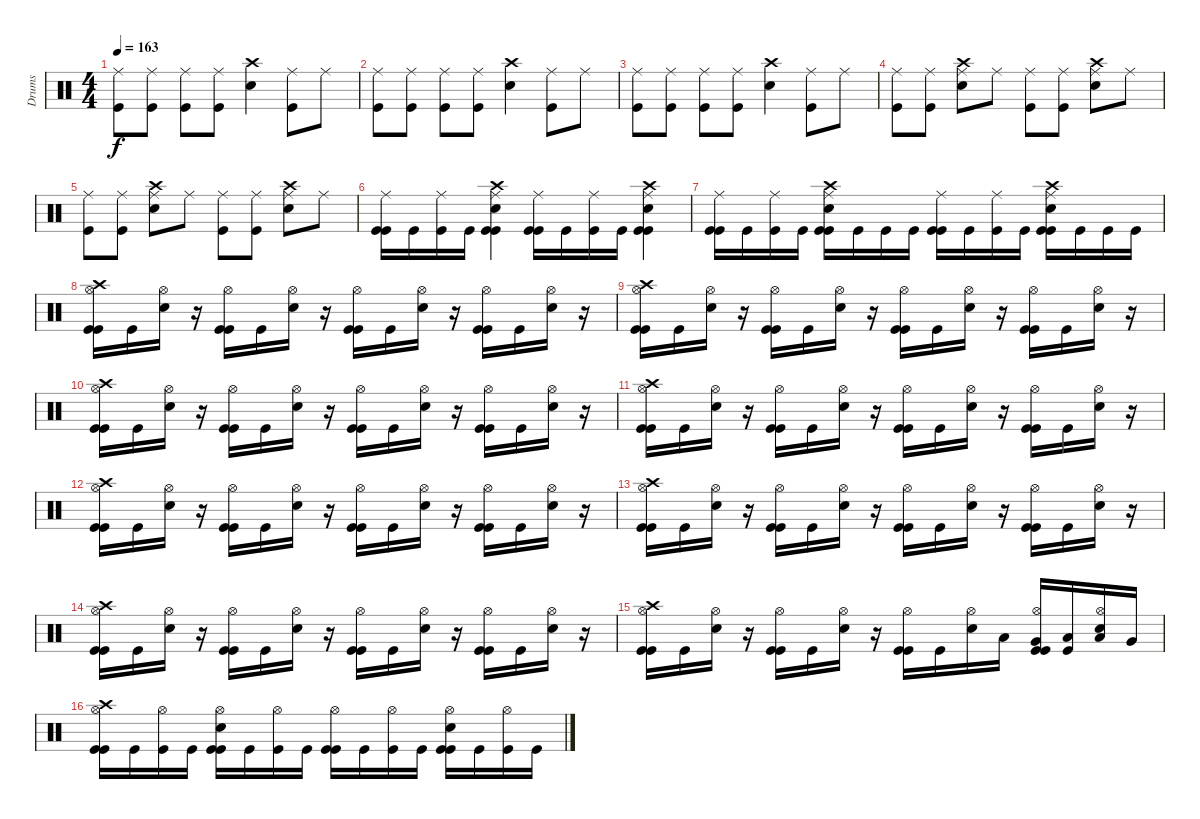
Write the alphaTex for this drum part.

\track ("Drums" "Drums") {instrument percussion}
\staff {score}
\articulation defaults
\ts (4 4)
\tempo 163
\clef neutral
\ks c
("Ride (middle)" "Kick (hit)").8{dy f} ("Ride (middle)" "Kick (hit)").8 ("Ride (middle)" "Kick (hit)").8 ("Ride (middle)" "Kick (hit)").8 ("Crash high (hit)" "Snare (hit) 2").4 ("Ride (middle)" "Kick (hit)").8 "Ride (middle)".8 |
("Ride (middle)" "Kick (hit)").8 ("Ride (middle)" "Kick (hit)").8 ("Ride (middle)" "Kick (hit)").8 ("Ride (middle)" "Kick (hit)").8 ("Crash high (hit)" "Snare (hit) 2").4 ("Ride (middle)" "Kick (hit)").8 "Ride (middle)".8 |
("Ride (middle)" "Kick (hit)").8 ("Ride (middle)" "Kick (hit)").8 ("Ride (middle)" "Kick (hit)").8 ("Ride (middle)" "Kick (hit)").8 ("Crash high (hit)" "Snare (hit) 2").4 ("Ride (middle)" "Kick (hit)").8 "Ride (middle)".8 |
("Ride (middle)" "Kick (hit)").8 ("Ride (middle)" "Kick (hit)").8 ("Crash high (hit)" "Ride (middle)" "Snare (hit) 2").8 "Ride (middle)".8 ("Ride (middle)" "Kick (hit)").8 ("Ride (middle)" "Kick (hit)").8 ("Crash high (hit)" "Ride (middle)" "Snare (hit) 2").8 "Ride (middle)".8 |
("Ride (middle)" "Kick (hit)").8 ("Ride (middle)" "Kick (hit)").8 ("Crash high (hit)" "Ride (middle)" "Snare (hit) 2").8 "Ride (middle)".8 ("Ride (middle)" "Kick (hit)").8 ("Ride (middle)" "Kick (hit)").8 ("Crash high (hit)" "Ride (middle)" "Snare (hit) 2").8 "Ride (middle)".8 |
("Ride (middle)" "Kick (hit)" "Kick (hit)").16 "Kick (hit)".16 ("Ride (middle)" "Kick (hit)").16 "Kick (hit)".16 ("Crash high (hit)" "Electric Snare (hit)" "Ride (middle)" "Kick (hit)" "Kick (hit)").4 ("Ride (middle)" "Kick (hit)" "Kick (hit)").16 "Kick (hit)".16 ("Ride (middle)" "Kick (hit)").16 "Kick (hit)".16 ("Crash high (hit)" "Electric Snare (hit)" "Ride (middle)" "Kick (hit)" "Kick (hit)").4 |
("Ride (middle)" "Kick (hit)" "Kick (hit)").16 "Kick (hit)".16 ("Ride (middle)" "Kick (hit)").16 "Kick (hit)".16 ("Crash high (hit)" "Electric Snare (hit)" "Ride (middle)" "Kick (hit)" "Kick (hit)").16 "Kick (hit)".16 "Kick (hit)".16 "Kick (hit)".16 ("Ride (middle)" "Kick (hit)" "Kick (hit)").16 "Kick (hit)".16 ("Ride (middle)" "Kick (hit)").16 "Kick (hit)".16 ("Crash high (hit)" "Electric Snare (hit)" "Ride (middle)" "Kick (hit)" "Kick (hit)").16 "Kick (hit)".16 "Kick (hit)".16 "Kick (hit)".16 |
("Crash high (hit)" "Hi-Hat (open)" "Kick (hit)" "Kick (hit)").16 "Kick (hit)".16 ("Hi-Hat (open)" "Electric Snare (hit)").16 r.16 ("Hi-Hat (open)" "Kick (hit)" "Kick (hit)").16 "Kick (hit)".16 ("Hi-Hat (open)" "Electric Snare (hit)").16 r.16 ("Hi-Hat (open)" "Kick (hit)" "Kick (hit)").16 "Kick (hit)".16 ("Hi-Hat (open)" "Electric Snare (hit)").16 r.16 ("Hi-Hat (open)" "Kick (hit)" "Kick (hit)").16 "Kick (hit)".16 ("Hi-Hat (open)" "Electric Snare (hit)").16 r.16 |
("Crash high (hit)" "Hi-Hat (open)" "Kick (hit)" "Kick (hit)").16 "Kick (hit)".16 ("Hi-Hat (open)" "Electric Snare (hit)").16 r.16 ("Hi-Hat (open)" "Kick (hit)" "Kick (hit)").16 "Kick (hit)".16 ("Hi-Hat (open)" "Electric Snare (hit)").16 r.16 ("Hi-Hat (open)" "Kick (hit)" "Kick (hit)").16 "Kick (hit)".16 ("Hi-Hat (open)" "Electric Snare (hit)").16 r.16 ("Hi-Hat (open)" "Kick (hit)" "Kick (hit)").16 "Kick (hit)".16 ("Hi-Hat (open)" "Electric Snare (hit)").16 r.16 |
("Crash high (hit)" "Hi-Hat (open)" "Kick (hit)" "Kick (hit)").16 "Kick (hit)".16 ("Hi-Hat (open)" "Electric Snare (hit)").16 r.16 ("Hi-Hat (open)" "Kick (hit)" "Kick (hit)").16 "Kick (hit)".16 ("Hi-Hat (open)" "Electric Snare (hit)").16 r.16 ("Hi-Hat (open)" "Kick (hit)" "Kick (hit)").16 "Kick (hit)".16 ("Hi-Hat (open)" "Electric Snare (hit)").16 r.16 ("Hi-Hat (open)" "Kick (hit)" "Kick (hit)").16 "Kick (hit)".16 ("Hi-Hat (open)" "Electric Snare (hit)").16 r.16 |
("Crash high (hit)" "Hi-Hat (open)" "Kick (hit)" "Kick (hit)").16 "Kick (hit)".16 ("Hi-Hat (open)" "Electric Snare (hit)").16 r.16 ("Hi-Hat (open)" "Kick (hit)" "Kick (hit)").16 "Kick (hit)".16 ("Hi-Hat (open)" "Electric Snare (hit)").16 r.16 ("Hi-Hat (open)" "Kick (hit)" "Kick (hit)").16 "Kick (hit)".16 ("Hi-Hat (open)" "Electric Snare (hit)").16 r.16 ("Hi-Hat (open)" "Kick (hit)" "Kick (hit)").16 "Kick (hit)".16 ("Hi-Hat (open)" "Electric Snare (hit)").16 r.16 |
("Crash high (hit)" "Hi-Hat (open)" "Kick (hit)" "Kick (hit)").16 "Kick (hit)".16 ("Hi-Hat (open)" "Electric Snare (hit)").16 r.16 ("Hi-Hat (open)" "Kick (hit)" "Kick (hit)").16 "Kick (hit)".16 ("Hi-Hat (open)" "Electric Snare (hit)").16 r.16 ("Hi-Hat (open)" "Kick (hit)" "Kick (hit)").16 "Kick (hit)".16 ("Hi-Hat (open)" "Electric Snare (hit)").16 r.16 ("Hi-Hat (open)" "Kick (hit)" "Kick (hit)").16 "Kick (hit)".16 ("Hi-Hat (open)" "Electric Snare (hit)").16 r.16 |
("Crash high (hit)" "Hi-Hat (open)" "Kick (hit)" "Kick (hit)").16 "Kick (hit)".16 ("Hi-Hat (open)" "Electric Snare (hit)").16 r.16 ("Hi-Hat (open)" "Kick (hit)" "Kick (hit)").16 "Kick (hit)".16 ("Hi-Hat (open)" "Electric Snare (hit)").16 r.16 ("Hi-Hat (open)" "Kick (hit)" "Kick (hit)").16 "Kick (hit)".16 ("Hi-Hat (open)" "Electric Snare (hit)").16 r.16 ("Hi-Hat (open)" "Kick (hit)" "Kick (hit)").16 "Kick (hit)".16 ("Hi-Hat (open)" "Electric Snare (hit)").16 r.16 |
("Crash high (hit)" "Hi-Hat (open)" "Kick (hit)" "Kick (hit)").16 "Kick (hit)".16 ("Hi-Hat (open)" "Electric Snare (hit)").16 r.16 ("Hi-Hat (open)" "Kick (hit)" "Kick (hit)").16 "Kick (hit)".16 ("Hi-Hat (open)" "Electric Snare (hit)").16 r.16 ("Hi-Hat (open)" "Kick (hit)" "Kick (hit)").16 "Kick (hit)".16 ("Hi-Hat (open)" "Electric Snare (hit)").16 r.16 ("Hi-Hat (open)" "Kick (hit)" "Kick (hit)").16 "Kick (hit)".16 ("Hi-Hat (open)" "Electric Snare (hit)").16 r.16 |
("Crash high (hit)" "Hi-Hat (open)" "Kick (hit)" "Kick (hit)").16 "Kick (hit)".16 ("Hi-Hat (open)" "Electric Snare (hit)").16 r.16 ("Hi-Hat (open)" "Kick (hit)" "Kick (hit)").16 "Kick (hit)".16 ("Hi-Hat (open)" "Electric Snare (hit)").16 r.16 ("Hi-Hat (open)" "Kick (hit)" "Kick (hit)").16 "Kick (hit)".16 ("Hi-Hat (open)" "Electric Snare (hit)").16 "Low Floor Tom (hit)".16 ("Very Low Tom (hit)" "Hi-Hat (open)" "Kick (hit)" "Kick (hit)").16 ("Low Floor Tom (hit)" "Kick (hit)").16 ("Low Tom (hit)" "Hi-Hat (open)" "Electric Snare (hit)").16 "Very Low Tom (hit)".16 |
("Crash high (hit)" "Hi-Hat (open)" "Kick (hit)" "Kick (hit)").16 "Kick (hit)".16 ("Kick (hit)" "Hi-Hat (open)").16 "Kick (hit)".16 ("Electric Snare (hit)" "Hi-Hat (open)" "Kick (hit)" "Kick (hit)").16 "Kick (hit)".16 ("Kick (hit)" "Hi-Hat (open)").16 "Kick (hit)".16 ("Hi-Hat (open)" "Kick (hit)" "Kick (hit)").16 "Kick (hit)".16 ("Kick (hit)" "Hi-Hat (open)").16 "Kick (hit)".16 ("Electric Snare (hit)" "Hi-Hat (open)" "Kick (hit)" "Kick (hit)").16 "Kick (hit)".16 ("Kick (hit)" "Hi-Hat (open)").16 "Kick (hit)".16
